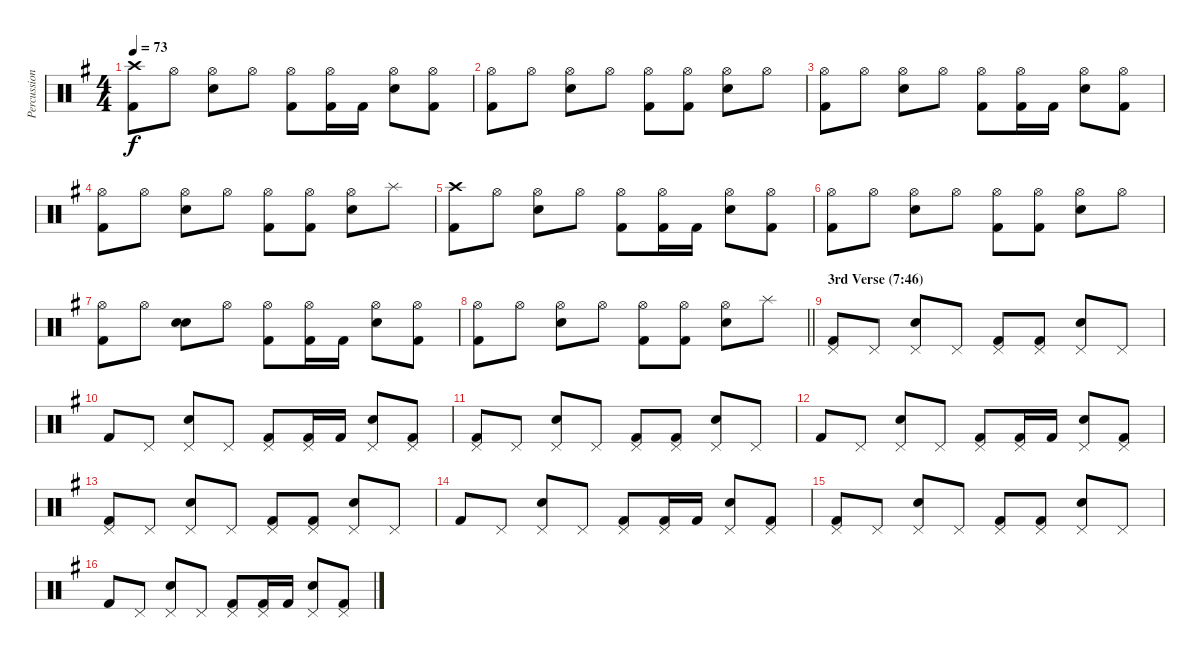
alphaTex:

\track ("Percussions" "Percussion") {instrument percussion}
\staff {score}
\articulation defaults
\ts (4 4)
\tempo 73
\clef neutral
\ks g
("Crash high (hit)" "Kick (hit) 2").8{dy f} "Hi-Hat (open)".8 ("Hi-Hat (open)" "Snare (hit) 2").8 "Hi-Hat (open)".8 ("Hi-Hat (open)" "Kick (hit) 2").8 ("Hi-Hat (open)" "Kick (hit) 2").16 "Kick (hit) 2".16 ("Hi-Hat (open)" "Snare (hit) 2").8 ("Hi-Hat (open)" "Kick (hit) 2").8 |
("Hi-Hat (open)" "Kick (hit) 2").8 "Hi-Hat (open)".8 ("Hi-Hat (open)" "Snare (hit) 2").8 "Hi-Hat (open)".8 ("Hi-Hat (open)" "Kick (hit) 2").8 ("Hi-Hat (open)" "Kick (hit) 2").8 ("Hi-Hat (open)" "Snare (hit) 2").8 "Hi-Hat (open)".8 |
("Hi-Hat (open)" "Kick (hit) 2").8 "Hi-Hat (open)".8 ("Hi-Hat (open)" "Snare (hit) 2").8 "Hi-Hat (open)".8 ("Hi-Hat (open)" "Kick (hit) 2").8 ("Hi-Hat (open)" "Kick (hit) 2").16 "Kick (hit) 2".16 ("Hi-Hat (open)" "Snare (hit) 2").8 ("Hi-Hat (open)" "Kick (hit) 2").8 |
("Hi-Hat (open)" "Kick (hit) 2").8 "Hi-Hat (open)".8 ("Hi-Hat (open)" "Snare (hit) 2").8 "Hi-Hat (open)".8 ("Hi-Hat (open)" "Kick (hit) 2").8 ("Hi-Hat (open)" "Kick (hit) 2").8 ("Hi-Hat (open)" "Snare (hit) 2").8 "Splash (hit)".8 |
("Crash high (hit)" "Kick (hit) 2").8 "Hi-Hat (open)".8 ("Hi-Hat (open)" "Snare (hit) 2").8 "Hi-Hat (open)".8 ("Hi-Hat (open)" "Kick (hit) 2").8 ("Hi-Hat (open)" "Kick (hit) 2").16 "Kick (hit) 2".16 ("Hi-Hat (open)" "Snare (hit) 2").8 ("Hi-Hat (open)" "Kick (hit) 2").8 |
("Hi-Hat (open)" "Kick (hit) 2").8 "Hi-Hat (open)".8 ("Hi-Hat (open)" "Snare (hit) 2").8 "Hi-Hat (open)".8 ("Hi-Hat (open)" "Kick (hit) 2").8 ("Hi-Hat (open)" "Kick (hit) 2").8 ("Hi-Hat (open)" "Snare (hit) 2").8 "Hi-Hat (open)".8 |
("Hi-Hat (open)" "Kick (hit) 2").8 "Hi-Hat (open)".8 ("Snare (hit)" "Snare (hit) 2").8 "Hi-Hat (open)".8 ("Hi-Hat (open)" "Kick (hit) 2").8 ("Hi-Hat (open)" "Kick (hit) 2").16 "Kick (hit) 2".16 ("Hi-Hat (open)" "Snare (hit) 2").8 ("Hi-Hat (open)" "Kick (hit) 2").8 |
\barLineRight lightlight
("Hi-Hat (open)" "Kick (hit) 2").8 "Hi-Hat (open)".8 ("Hi-Hat (open)" "Snare (hit) 2").8 "Hi-Hat (open)".8 ("Hi-Hat (open)" "Kick (hit) 2").8 ("Hi-Hat (open)" "Kick (hit) 2").8 ("Hi-Hat (open)" "Snare (hit) 2").8 "Splash (hit)".8 |
\section ("" "3rd Verse (7:46)")
("Pedal Hi-Hat (hit)" "Kick (hit) 2").8 "Pedal Hi-Hat (hit)".8 ("Pedal Hi-Hat (hit)" "Snare (hit) 2").8 "Pedal Hi-Hat (hit)".8 ("Pedal Hi-Hat (hit)" "Kick (hit) 2").8 ("Pedal Hi-Hat (hit)" "Kick (hit) 2").8 ("Pedal Hi-Hat (hit)" "Snare (hit) 2").8 "Pedal Hi-Hat (hit)".8 |
"Kick (hit) 2".8 "Pedal Hi-Hat (hit)".8 ("Pedal Hi-Hat (hit)" "Snare (hit) 2").8 "Pedal Hi-Hat (hit)".8 ("Pedal Hi-Hat (hit)" "Kick (hit) 2").8 ("Pedal Hi-Hat (hit)" "Kick (hit) 2").16 "Kick (hit) 2".16 ("Pedal Hi-Hat (hit)" "Snare (hit) 2").8 ("Pedal Hi-Hat (hit)" "Kick (hit) 2").8 |
("Pedal Hi-Hat (hit)" "Kick (hit) 2").8 "Pedal Hi-Hat (hit)".8 ("Pedal Hi-Hat (hit)" "Snare (hit) 2").8 "Pedal Hi-Hat (hit)".8 ("Pedal Hi-Hat (hit)" "Kick (hit) 2").8 ("Pedal Hi-Hat (hit)" "Kick (hit) 2").8 ("Pedal Hi-Hat (hit)" "Snare (hit) 2").8 "Pedal Hi-Hat (hit)".8 |
"Kick (hit) 2".8 "Pedal Hi-Hat (hit)".8 ("Pedal Hi-Hat (hit)" "Snare (hit) 2").8 "Pedal Hi-Hat (hit)".8 ("Pedal Hi-Hat (hit)" "Kick (hit) 2").8 ("Pedal Hi-Hat (hit)" "Kick (hit) 2").16 "Kick (hit) 2".16 ("Pedal Hi-Hat (hit)" "Snare (hit) 2").8 ("Pedal Hi-Hat (hit)" "Kick (hit) 2").8 |
("Pedal Hi-Hat (hit)" "Kick (hit) 2").8 "Pedal Hi-Hat (hit)".8 ("Pedal Hi-Hat (hit)" "Snare (hit) 2").8 "Pedal Hi-Hat (hit)".8 ("Pedal Hi-Hat (hit)" "Kick (hit) 2").8 ("Pedal Hi-Hat (hit)" "Kick (hit) 2").8 ("Pedal Hi-Hat (hit)" "Snare (hit) 2").8 "Pedal Hi-Hat (hit)".8 |
"Kick (hit) 2".8 "Pedal Hi-Hat (hit)".8 ("Pedal Hi-Hat (hit)" "Snare (hit) 2").8 "Pedal Hi-Hat (hit)".8 ("Pedal Hi-Hat (hit)" "Kick (hit) 2").8 ("Pedal Hi-Hat (hit)" "Kick (hit) 2").16 "Kick (hit) 2".16 ("Pedal Hi-Hat (hit)" "Snare (hit) 2").8 ("Pedal Hi-Hat (hit)" "Kick (hit) 2").8 |
("Pedal Hi-Hat (hit)" "Kick (hit) 2").8 "Pedal Hi-Hat (hit)".8 ("Pedal Hi-Hat (hit)" "Snare (hit) 2").8 "Pedal Hi-Hat (hit)".8 ("Pedal Hi-Hat (hit)" "Kick (hit) 2").8 ("Pedal Hi-Hat (hit)" "Kick (hit) 2").8 ("Pedal Hi-Hat (hit)" "Snare (hit) 2").8 "Pedal Hi-Hat (hit)".8 |
"Kick (hit) 2".8 "Pedal Hi-Hat (hit)".8 ("Pedal Hi-Hat (hit)" "Snare (hit) 2").8 "Pedal Hi-Hat (hit)".8 ("Pedal Hi-Hat (hit)" "Kick (hit) 2").8 ("Pedal Hi-Hat (hit)" "Kick (hit) 2").16 "Kick (hit) 2".16 ("Pedal Hi-Hat (hit)" "Snare (hit) 2").8 ("Pedal Hi-Hat (hit)" "Kick (hit) 2").8
